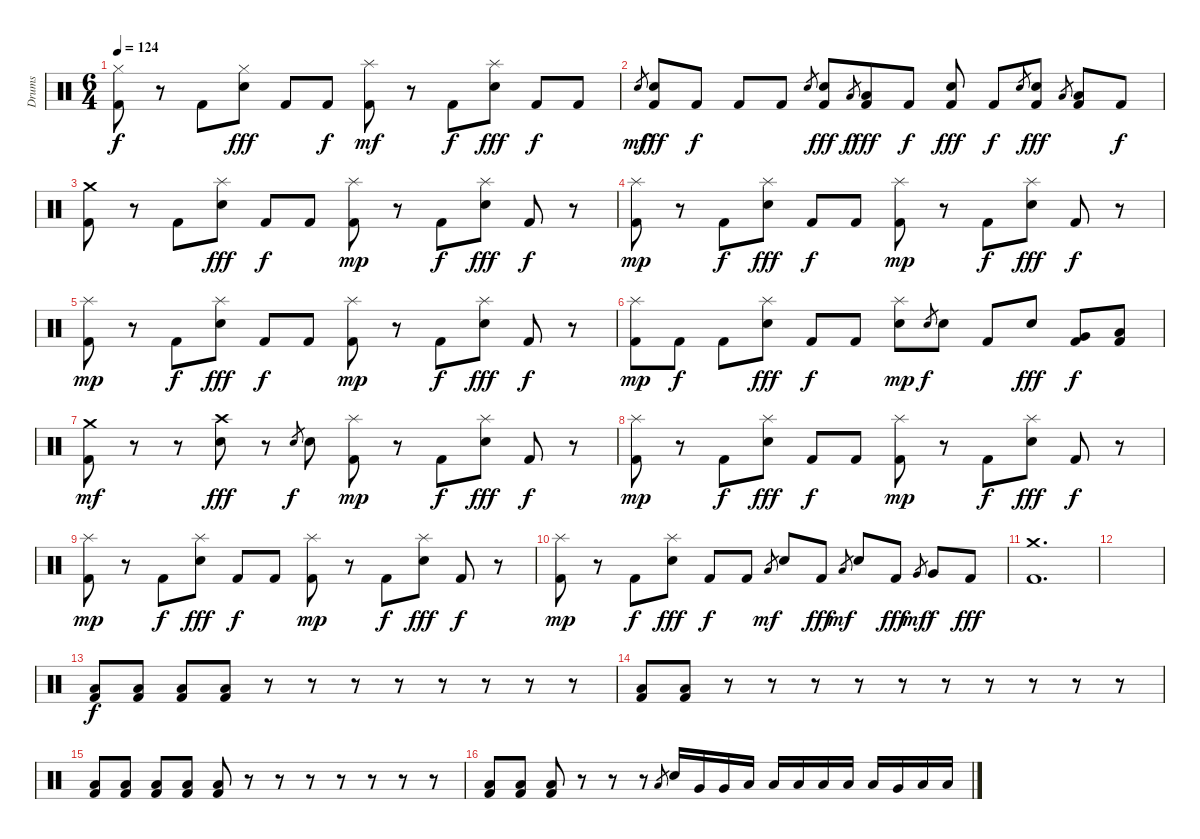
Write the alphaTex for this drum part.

\track ("Drums" "Drums") {instrument percussion}
\staff {score}
\articulation defaults
\ts (6 4)
\tempo 124
\clef neutral
\ks c
("Hi-Hat (closed)" "Kick (hit) 2").8{dy f} r.8 "Kick (hit) 2".8 ("Hi-Hat (closed)" "Electric Snare (hit)").8{dy fff} "Kick (hit) 2".8 "Kick (hit) 2".8{dy f} ("Splash (hit)" "Kick (hit) 2").8{dy mf} r.8 "Kick (hit) 2".8{dy f} ("Splash (hit)" "Electric Snare (hit)").8{dy fff} "Kick (hit) 2".8{dy f} "Kick (hit) 2".8 |
"Electric Snare (hit)".8{gr dy mf} ("Electric Snare (hit)" "Kick (hit) 2").8{dy fff} "Kick (hit) 2".8{dy f} "Kick (hit) 2".8 "Kick (hit) 2".8 "Electric Snare (hit)".8{gr beam split} ("Electric Snare (hit)" "Kick (hit) 2").8{dy fff} "Low Floor Tom (hit)".8{gr dy f} ("Low Floor Tom (hit)" "Kick (hit) 2").8{dy fff beam merge} "Kick (hit) 2".8{dy f beam split} ("Electric Snare (hit)" "Kick (hit) 2").8{dy fff} "Kick (hit) 2".8{dy f} "Electric Snare (hit)".8{gr beam split} ("Electric Snare (hit)" "Kick (hit) 2").8{dy fff} "Low Floor Tom (hit)".8{gr} ("Low Floor Tom (hit)" "Kick (hit) 2").8 "Kick (hit) 2".8{dy f} |
("Crash medium (hit)" "Kick (hit) 2").8 r.8 "Kick (hit) 2".8 ("Splash (hit)" "Electric Snare (hit)").8{dy fff} "Kick (hit) 2".8{dy f} "Kick (hit) 2".8 ("Splash (hit)" "Kick (hit) 2").8{dy mp} r.8 "Kick (hit) 2".8{dy f} ("Splash (hit)" "Electric Snare (hit)").8{dy fff} "Kick (hit) 2".8{dy f} r.8 |
("Splash (hit)" "Kick (hit) 2").8{dy mp} r.8 "Kick (hit) 2".8{dy f} ("Splash (hit)" "Electric Snare (hit)").8{dy fff} "Kick (hit) 2".8{dy f} "Kick (hit) 2".8 ("Splash (hit)" "Kick (hit) 2").8{dy mp} r.8 "Kick (hit) 2".8{dy f} ("Splash (hit)" "Electric Snare (hit)").8{dy fff} "Kick (hit) 2".8{dy f} r.8 |
("Splash (hit)" "Kick (hit) 2").8{dy mp} r.8 "Kick (hit) 2".8{dy f} ("Splash (hit)" "Electric Snare (hit)").8{dy fff} "Kick (hit) 2".8{dy f} "Kick (hit) 2".8 ("Splash (hit)" "Kick (hit) 2").8{dy mp} r.8 "Kick (hit) 2".8{dy f} ("Splash (hit)" "Electric Snare (hit)").8{dy fff} "Kick (hit) 2".8{dy f} r.8 |
("Splash (hit)" "Kick (hit) 2").8{dy mp} "Kick (hit) 2".8{dy f} "Kick (hit) 2".8 ("Splash (hit)" "Electric Snare (hit)").8{dy fff} "Kick (hit) 2".8{dy f} "Kick (hit) 2".8 ("Splash (hit)" "Electric Snare (hit)").8{dy mp} "Electric Snare (hit)".8{gr dy f} "Electric Snare (hit)".8 "Kick (hit) 2".8 "Electric Snare (hit)".8{dy fff} ("Very Low Tom (hit)" "Kick (hit) 2").8{dy f} ("Low Floor Tom (hit)" "Kick (hit) 2").8 |
("Crash medium (hit)" "Kick (hit) 2").8{dy mf} r.8 r.8 ("Crash high (hit)" "Electric Snare (hit)").8{dy fff} r.8 "Electric Snare (hit)".8{gr dy f} "Electric Snare (hit)".8 ("Splash (hit)" "Kick (hit) 2").8{dy mp} r.8 "Kick (hit) 2".8{dy f} ("Splash (hit)" "Electric Snare (hit)").8{dy fff} "Kick (hit) 2".8{dy f} r.8 |
("Splash (hit)" "Kick (hit) 2").8{dy mp} r.8 "Kick (hit) 2".8{dy f} ("Splash (hit)" "Electric Snare (hit)").8{dy fff} "Kick (hit) 2".8{dy f} "Kick (hit) 2".8 ("Splash (hit)" "Kick (hit) 2").8{dy mp} r.8 "Kick (hit) 2".8{dy f} ("Splash (hit)" "Electric Snare (hit)").8{dy fff} "Kick (hit) 2".8{dy f} r.8 |
("Splash (hit)" "Kick (hit) 2").8{dy mp} r.8 "Kick (hit) 2".8{dy f} ("Splash (hit)" "Electric Snare (hit)").8{dy fff} "Kick (hit) 2".8{dy f} "Kick (hit) 2".8 ("Splash (hit)" "Kick (hit) 2").8{dy mp} r.8 "Kick (hit) 2".8{dy f} ("Splash (hit)" "Electric Snare (hit)").8{dy fff} "Kick (hit) 2".8{dy f} r.8 |
("Splash (hit)" "Kick (hit) 2").8{dy mp} r.8 "Kick (hit) 2".8{dy f} ("Splash (hit)" "Electric Snare (hit)").8{dy fff} "Kick (hit) 2".8{dy f} "Kick (hit) 2".8 "Low Tom (hit)".8{gr dy mf} "Electric Snare (hit)".8 "Kick (hit) 2".8{dy fff} "Low Tom (hit)".8{gr dy mf} "Electric Snare (hit)".8 "Kick (hit) 2".8{dy fff} "Very Low Tom (hit)".8{gr dy mf} "Very Low Tom (hit)".8{dy f} "Kick (hit) 2".8{dy fff} |
("Crash medium (hit)" "Kick (hit) 2").1{d} |
|
("Low Floor Tom (hit)" "Kick (hit) 2").8{dy f} ("Low Floor Tom (hit)" "Kick (hit) 2").8 ("Low Floor Tom (hit)" "Kick (hit) 2").8 ("Low Floor Tom (hit)" "Kick (hit) 2").8 r.8 r.8 r.8 r.8 r.8 r.8 r.8 r.8 |
("Low Floor Tom (hit)" "Kick (hit) 2").8 ("Low Floor Tom (hit)" "Kick (hit) 2").8 r.8 r.8 r.8 r.8 r.8 r.8 r.8 r.8 r.8 r.8 |
("Low Floor Tom (hit)" "Kick (hit) 2").8 ("Low Floor Tom (hit)" "Kick (hit) 2").8 ("Low Floor Tom (hit)" "Kick (hit) 2").8 ("Low Floor Tom (hit)" "Kick (hit) 2").8 ("Low Floor Tom (hit)" "Kick (hit) 2").8 r.8 r.8 r.8 r.8 r.8 r.8 r.8 |
("Low Floor Tom (hit)" "Kick (hit) 2").8 ("Low Floor Tom (hit)" "Kick (hit) 2").8 ("Low Floor Tom (hit)" "Kick (hit) 2").8 r.8 r.8 r.8 "Low Tom (hit)".8{gr} "Electric Snare (hit)".16 "Very Low Tom (hit)".16 "Very Low Tom (hit)".16 "Low Floor Tom (hit)".16 "Low Floor Tom (hit)".16 "Low Floor Tom (hit)".16 "Low Tom (hit)".16 "Low Floor Tom (hit)".16 "Low Tom (hit)".16 "Very Low Tom (hit)".16 "Low Floor Tom (hit)".16 "Low Floor Tom (hit)".16
